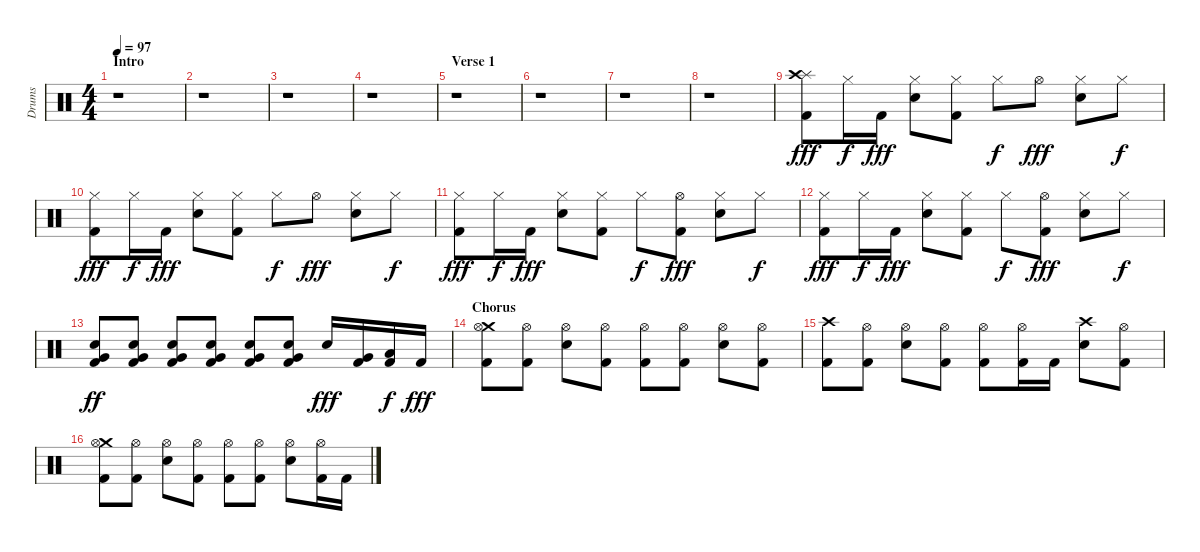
\track ("Drums" "Drums") {instrument percussion}
\staff {score}
\articulation defaults
\ts (4 4)
\section ("" "Intro")
\tempo 97
\clef neutral
\ks c
r.1{dy fff} |
r.1 |
r.1 |
r.1 |
\section ("" "Verse 1")
r.1 |
r.1 |
r.1 |
r.1 |
("Splash (hit)" "Crash high (hit)" "Kick (hit) 2").8 "Hi-Hat (closed)".16{dy f} "Kick (hit) 2".16{dy fff} ("Hi-Hat (closed)" "Electric Snare (hit)").8 ("Hi-Hat (closed)" "Kick (hit) 2").8 "Hi-Hat (closed)".8{dy f} "Hi-Hat (open)".8{dy fff} ("Hi-Hat (closed)" "Electric Snare (hit)").8 "Hi-Hat (closed)".8{dy f} |
("Hi-Hat (closed)" "Kick (hit) 2").8{dy fff} "Hi-Hat (closed)".16{dy f} "Kick (hit) 2".16{dy fff} ("Hi-Hat (closed)" "Electric Snare (hit)").8 ("Hi-Hat (closed)" "Kick (hit) 2").8 "Hi-Hat (closed)".8{dy f} "Hi-Hat (open)".8{dy fff} ("Hi-Hat (closed)" "Electric Snare (hit)").8 "Hi-Hat (closed)".8{dy f} |
("Hi-Hat (closed)" "Kick (hit) 2").8{dy fff} "Hi-Hat (closed)".16{dy f} "Kick (hit) 2".16{dy fff} ("Hi-Hat (closed)" "Electric Snare (hit)").8 ("Hi-Hat (closed)" "Kick (hit) 2").8 "Hi-Hat (closed)".8{dy f} ("Hi-Hat (open)" "Kick (hit) 2").8{dy fff} ("Hi-Hat (closed)" "Electric Snare (hit)").8 "Hi-Hat (closed)".8{dy f} |
("Hi-Hat (closed)" "Kick (hit) 2").8{dy fff} "Hi-Hat (closed)".16{dy f} "Kick (hit) 2".16{dy fff} ("Hi-Hat (closed)" "Electric Snare (hit)").8 ("Hi-Hat (closed)" "Kick (hit) 2").8 "Hi-Hat (closed)".8{dy f} ("Hi-Hat (open)" "Kick (hit) 2").8{dy fff} ("Hi-Hat (closed)" "Electric Snare (hit)").8 "Hi-Hat (closed)".8{dy f} |
("Electric Snare (hit)" "Very Low Tom (hit)" "Kick (hit) 2").8{dy ff} ("Electric Snare (hit)" "Very Low Tom (hit)" "Kick (hit) 2").8 ("Electric Snare (hit)" "Very Low Tom (hit)" "Kick (hit) 2").8 ("Electric Snare (hit)" "Very Low Tom (hit)" "Kick (hit) 2").8 ("Electric Snare (hit)" "Very Low Tom (hit)" "Kick (hit) 2").8 ("Electric Snare (hit)" "Very Low Tom (hit)" "Kick (hit) 2").8 "Electric Snare (hit)".16{dy fff} ("Very Low Tom (hit)" "Kick (hit) 2").16 ("Low Floor Tom (hit)" "Kick (hit) 2").16{dy f} "Kick (hit) 2".16{dy fff} |
\section ("" "Chorus")
("Crash medium (hit)" "Hi-Hat (open)" "Kick (hit) 2").8 ("Hi-Hat (open)" "Kick (hit) 2").8 ("Hi-Hat (open)" "Electric Snare (hit)").8 ("Hi-Hat (open)" "Kick (hit) 2").8 ("Hi-Hat (open)" "Kick (hit) 2").8 ("Hi-Hat (open)" "Kick (hit) 2").8 ("Hi-Hat (open)" "Electric Snare (hit)").8 ("Hi-Hat (open)" "Kick (hit) 2").8 |
("Crash high (hit)" "Kick (hit) 2").8 ("Hi-Hat (open)" "Kick (hit) 2").8 ("Hi-Hat (open)" "Electric Snare (hit)").8 ("Hi-Hat (open)" "Kick (hit) 2").8 ("Hi-Hat (open)" "Kick (hit) 2").8 ("Hi-Hat (open)" "Kick (hit) 2").16 "Kick (hit) 2".16 ("Crash high (hit)" "Electric Snare (hit)").8 ("Hi-Hat (open)" "Kick (hit) 2").8 |
("Crash medium (hit)" "Hi-Hat (open)" "Kick (hit) 2").8 ("Hi-Hat (open)" "Kick (hit) 2").8 ("Hi-Hat (open)" "Electric Snare (hit)").8 ("Hi-Hat (open)" "Kick (hit) 2").8 ("Hi-Hat (open)" "Kick (hit) 2").8 ("Hi-Hat (open)" "Kick (hit) 2").8 ("Hi-Hat (open)" "Electric Snare (hit)").8 ("Hi-Hat (open)" "Kick (hit) 2").16 "Kick (hit) 2".16
